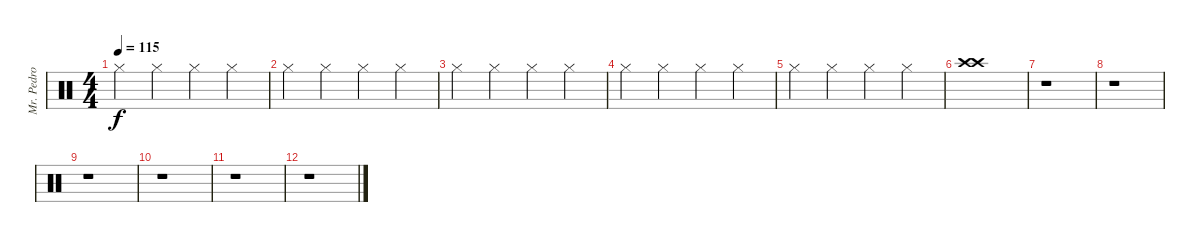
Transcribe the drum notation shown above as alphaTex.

\track ("Mr. Pedro Andreu" "Mr. Pedro ") {instrument percussion}
\staff {score}
\articulation defaults
\ts (4 4)
\tempo 115
\clef neutral
\ks c "Hi-Hat (closed)".4{dy f} "Hi-Hat (closed)".4 "Hi-Hat (closed)".4 "Hi-Hat (closed)".4
|
"Hi-Hat (closed)".4 "Hi-Hat (closed)".4 "Hi-Hat (closed)".4 "Hi-Hat (closed)".4 |
"Hi-Hat (closed)".4 "Hi-Hat (closed)".4 "Hi-Hat (closed)".4 "Hi-Hat (closed)".4 |
"Hi-Hat (closed)".4 "Hi-Hat (closed)".4 "Hi-Hat (closed)".4 "Hi-Hat (closed)".4 |
"Hi-Hat (closed)".4 "Hi-Hat (closed)".4 "Hi-Hat (closed)".4 "Hi-Hat (closed)".4 |
("Crash high (hit)" "Crash high (hit)").1 |
r.1 |
r.1 |
r.1 |
r.1 |
r.1 |
r.1
